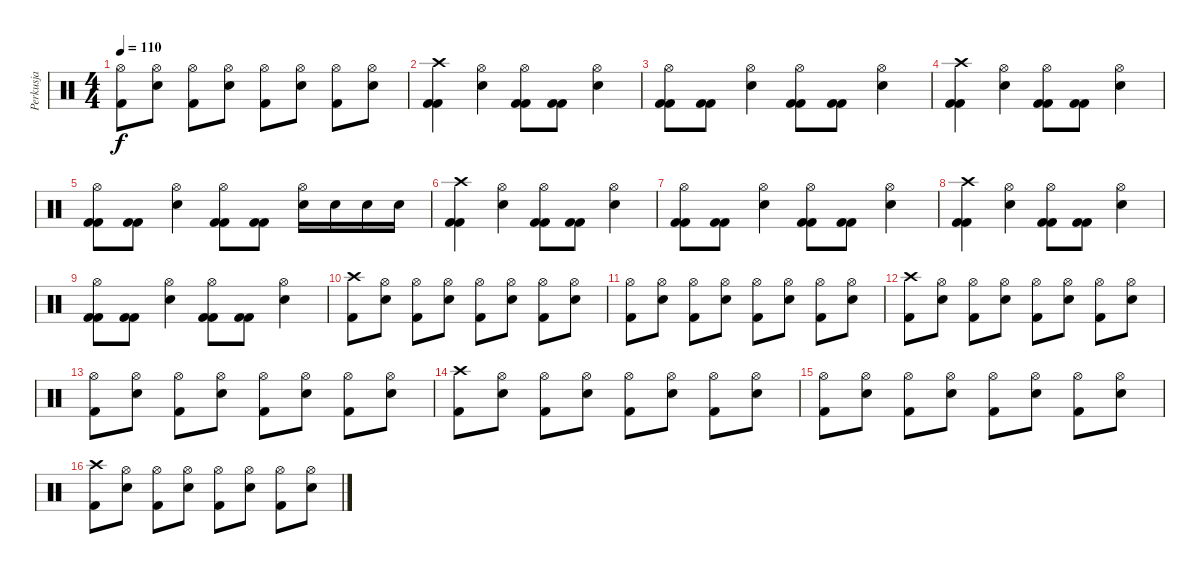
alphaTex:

\track ("Perkusja" "Perkusja") {instrument percussion}
\staff {score}
\articulation defaults
\ts (4 4)
\tempo 110
\clef neutral
\ks c
("Hi-Hat (open)" "Kick (hit) 2").8{dy f} ("Hi-Hat (open)" "Electric Snare (hit)").8 ("Hi-Hat (open)" "Kick (hit) 2").8 ("Hi-Hat (open)" "Electric Snare (hit)").8 ("Hi-Hat (open)" "Kick (hit) 2").8 ("Hi-Hat (open)" "Electric Snare (hit)").8 ("Hi-Hat (open)" "Kick (hit) 2").8 ("Hi-Hat (open)" "Electric Snare (hit)").8 |
("Crash high (hit)" "Kick (hit) 2" "Kick (hit) 2").4 ("Hi-Hat (open)" "Electric Snare (hit)").4 ("Hi-Hat (open)" "Kick (hit) 2" "Kick (hit) 2").8 ("Kick (hit) 2" "Kick (hit) 2").8 ("Hi-Hat (open)" "Electric Snare (hit)").4 |
("Hi-Hat (open)" "Kick (hit) 2" "Kick (hit) 2").8 ("Kick (hit) 2" "Kick (hit) 2").8 ("Hi-Hat (open)" "Electric Snare (hit)").4 ("Hi-Hat (open)" "Kick (hit) 2" "Kick (hit) 2").8 ("Kick (hit) 2" "Kick (hit) 2").8 ("Hi-Hat (open)" "Electric Snare (hit)").4 |
("Crash high (hit)" "Kick (hit) 2" "Kick (hit) 2").4 ("Hi-Hat (open)" "Electric Snare (hit)").4 ("Hi-Hat (open)" "Kick (hit) 2" "Kick (hit) 2").8 ("Kick (hit) 2" "Kick (hit) 2").8 ("Hi-Hat (open)" "Electric Snare (hit)").4 |
("Hi-Hat (open)" "Kick (hit) 2" "Kick (hit) 2").8 ("Kick (hit) 2" "Kick (hit) 2").8 ("Hi-Hat (open)" "Electric Snare (hit)").4 ("Hi-Hat (open)" "Kick (hit) 2" "Kick (hit) 2").8 ("Kick (hit) 2" "Kick (hit) 2").8 ("Hi-Hat (open)" "Electric Snare (hit)").16 "Electric Snare (hit)".16 "Electric Snare (hit)".16 "Electric Snare (hit)".16 |
("Crash high (hit)" "Kick (hit) 2" "Kick (hit) 2").4 ("Hi-Hat (open)" "Electric Snare (hit)").4 ("Hi-Hat (open)" "Kick (hit) 2" "Kick (hit) 2").8 ("Kick (hit) 2" "Kick (hit) 2").8 ("Hi-Hat (open)" "Electric Snare (hit)").4 |
("Hi-Hat (open)" "Kick (hit) 2" "Kick (hit) 2").8 ("Kick (hit) 2" "Kick (hit) 2").8 ("Hi-Hat (open)" "Electric Snare (hit)").4 ("Hi-Hat (open)" "Kick (hit) 2" "Kick (hit) 2").8 ("Kick (hit) 2" "Kick (hit) 2").8 ("Hi-Hat (open)" "Electric Snare (hit)").4 |
("Crash high (hit)" "Kick (hit) 2" "Kick (hit) 2").4 ("Hi-Hat (open)" "Electric Snare (hit)").4 ("Hi-Hat (open)" "Kick (hit) 2" "Kick (hit) 2").8 ("Kick (hit) 2" "Kick (hit) 2").8 ("Hi-Hat (open)" "Electric Snare (hit)").4 |
("Hi-Hat (open)" "Kick (hit) 2" "Kick (hit) 2").8 ("Kick (hit) 2" "Kick (hit) 2").8 ("Hi-Hat (open)" "Electric Snare (hit)").4 ("Hi-Hat (open)" "Kick (hit) 2" "Kick (hit) 2").8 ("Kick (hit) 2" "Kick (hit) 2").8 ("Hi-Hat (open)" "Electric Snare (hit)").4 |
("Crash high (hit)" "Kick (hit) 2").8 ("Hi-Hat (open)" "Electric Snare (hit)").8 ("Hi-Hat (open)" "Kick (hit) 2").8 ("Hi-Hat (open)" "Electric Snare (hit)").8 ("Hi-Hat (open)" "Kick (hit) 2").8 ("Hi-Hat (open)" "Electric Snare (hit)").8 ("Hi-Hat (open)" "Kick (hit) 2").8 ("Hi-Hat (open)" "Electric Snare (hit)").8 |
("Hi-Hat (open)" "Kick (hit) 2").8 ("Hi-Hat (open)" "Electric Snare (hit)").8 ("Hi-Hat (open)" "Kick (hit) 2").8 ("Hi-Hat (open)" "Electric Snare (hit)").8 ("Hi-Hat (open)" "Kick (hit) 2").8 ("Hi-Hat (open)" "Electric Snare (hit)").8 ("Hi-Hat (open)" "Kick (hit) 2").8 ("Hi-Hat (open)" "Electric Snare (hit)").8 |
("Crash high (hit)" "Kick (hit) 2").8 ("Hi-Hat (open)" "Electric Snare (hit)").8 ("Hi-Hat (open)" "Kick (hit) 2").8 ("Hi-Hat (open)" "Electric Snare (hit)").8 ("Hi-Hat (open)" "Kick (hit) 2").8 ("Hi-Hat (open)" "Electric Snare (hit)").8 ("Hi-Hat (open)" "Kick (hit) 2").8 ("Hi-Hat (open)" "Electric Snare (hit)").8 |
("Hi-Hat (open)" "Kick (hit) 2").8 ("Hi-Hat (open)" "Electric Snare (hit)").8 ("Hi-Hat (open)" "Kick (hit) 2").8 ("Hi-Hat (open)" "Electric Snare (hit)").8 ("Hi-Hat (open)" "Kick (hit) 2").8 ("Hi-Hat (open)" "Electric Snare (hit)").8 ("Hi-Hat (open)" "Kick (hit) 2").8 ("Hi-Hat (open)" "Electric Snare (hit)").8 |
("Crash high (hit)" "Kick (hit) 2").8 ("Hi-Hat (open)" "Electric Snare (hit)").8 ("Hi-Hat (open)" "Kick (hit) 2").8 ("Hi-Hat (open)" "Electric Snare (hit)").8 ("Hi-Hat (open)" "Kick (hit) 2").8 ("Hi-Hat (open)" "Electric Snare (hit)").8 ("Hi-Hat (open)" "Kick (hit) 2").8 ("Hi-Hat (open)" "Electric Snare (hit)").8 |
("Hi-Hat (open)" "Kick (hit) 2").8 ("Hi-Hat (open)" "Electric Snare (hit)").8 ("Hi-Hat (open)" "Kick (hit) 2").8 ("Hi-Hat (open)" "Electric Snare (hit)").8 ("Hi-Hat (open)" "Kick (hit) 2").8 ("Hi-Hat (open)" "Electric Snare (hit)").8 ("Hi-Hat (open)" "Kick (hit) 2").8 ("Hi-Hat (open)" "Electric Snare (hit)").8 |
("Crash high (hit)" "Kick (hit) 2").8 ("Hi-Hat (open)" "Electric Snare (hit)").8 ("Hi-Hat (open)" "Kick (hit) 2").8 ("Hi-Hat (open)" "Electric Snare (hit)").8 ("Hi-Hat (open)" "Kick (hit) 2").8 ("Hi-Hat (open)" "Electric Snare (hit)").8 ("Hi-Hat (open)" "Kick (hit) 2").8 ("Hi-Hat (open)" "Electric Snare (hit)").8
